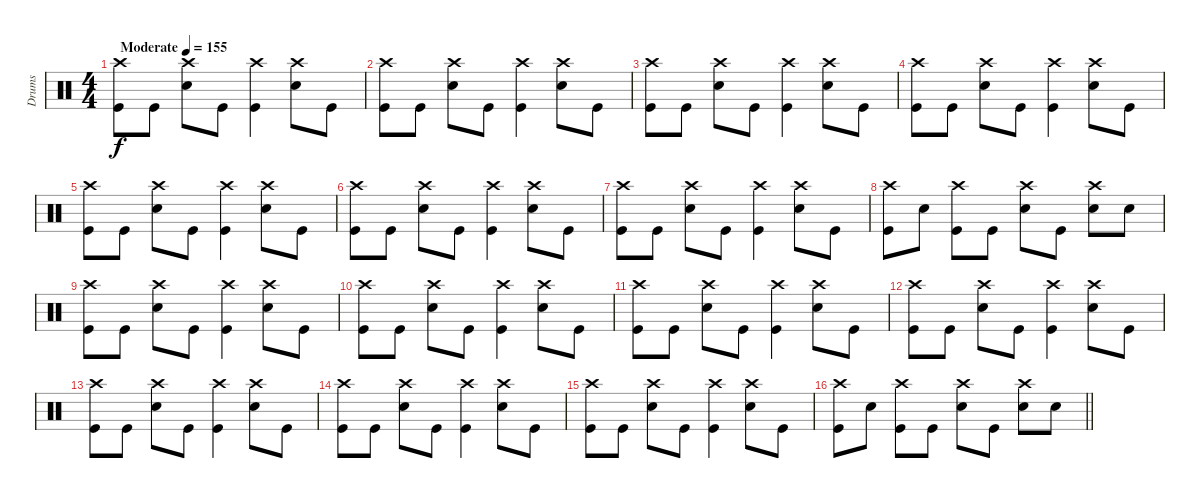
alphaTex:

\track ("Drums" "Drums") {instrument percussion}
\staff {score}
\articulation defaults
\ts (4 4)
\tempo (155 "Moderate")
\clef neutral
\ks c
("Crash high (hit)" "Kick (hit)").8{dy f} "Kick (hit)".8 ("Crash high (hit)" "Snare (hit) 2").8 "Kick (hit)".8 ("Crash high (hit)" "Kick (hit)").4 ("Crash high (hit)" "Snare (hit) 2").8 "Kick (hit)".8 |
("Crash high (hit)" "Kick (hit)").8 "Kick (hit)".8 ("Crash high (hit)" "Snare (hit) 2").8 "Kick (hit)".8 ("Crash high (hit)" "Kick (hit)").4 ("Crash high (hit)" "Snare (hit) 2").8 "Kick (hit)".8 |
("Crash high (hit)" "Kick (hit)").8 "Kick (hit)".8 ("Crash high (hit)" "Snare (hit) 2").8 "Kick (hit)".8 ("Crash high (hit)" "Kick (hit)").4 ("Crash high (hit)" "Snare (hit) 2").8 "Kick (hit)".8 |
("Crash high (hit)" "Kick (hit)").8 "Kick (hit)".8 ("Crash high (hit)" "Snare (hit) 2").8 "Kick (hit)".8 ("Crash high (hit)" "Kick (hit)").4 ("Crash high (hit)" "Snare (hit) 2").8 "Kick (hit)".8 |
("Crash high (hit)" "Kick (hit)").8 "Kick (hit)".8 ("Crash high (hit)" "Snare (hit) 2").8 "Kick (hit)".8 ("Crash high (hit)" "Kick (hit)").4 ("Crash high (hit)" "Snare (hit) 2").8 "Kick (hit)".8 |
("Crash high (hit)" "Kick (hit)").8 "Kick (hit)".8 ("Crash high (hit)" "Snare (hit) 2").8 "Kick (hit)".8 ("Crash high (hit)" "Kick (hit)").4 ("Crash high (hit)" "Snare (hit) 2").8 "Kick (hit)".8 |
("Crash high (hit)" "Kick (hit)").8 "Kick (hit)".8 ("Crash high (hit)" "Snare (hit) 2").8 "Kick (hit)".8 ("Crash high (hit)" "Kick (hit)").4 ("Crash high (hit)" "Snare (hit) 2").8 "Kick (hit)".8 |
("Crash high (hit)" "Kick (hit)").8 "Snare (hit) 2".8 ("Crash high (hit)" "Kick (hit)").8 "Kick (hit)".8 ("Crash high (hit)" "Snare (hit) 2").8 "Kick (hit)".8 ("Crash high (hit)" "Snare (hit) 2").8 "Snare (hit) 2".8 |
("Crash high (hit)" "Kick (hit)").8 "Kick (hit)".8 ("Crash high (hit)" "Snare (hit) 2").8 "Kick (hit)".8 ("Crash high (hit)" "Kick (hit)").4 ("Crash high (hit)" "Snare (hit) 2").8 "Kick (hit)".8 |
("Crash high (hit)" "Kick (hit)").8 "Kick (hit)".8 ("Crash high (hit)" "Snare (hit) 2").8 "Kick (hit)".8 ("Crash high (hit)" "Kick (hit)").4 ("Crash high (hit)" "Snare (hit) 2").8 "Kick (hit)".8 |
("Crash high (hit)" "Kick (hit)").8 "Kick (hit)".8 ("Crash high (hit)" "Snare (hit) 2").8 "Kick (hit)".8 ("Crash high (hit)" "Kick (hit)").4 ("Crash high (hit)" "Snare (hit) 2").8 "Kick (hit)".8 |
("Crash high (hit)" "Kick (hit)").8 "Kick (hit)".8 ("Crash high (hit)" "Snare (hit) 2").8 "Kick (hit)".8 ("Crash high (hit)" "Kick (hit)").4 ("Crash high (hit)" "Snare (hit) 2").8 "Kick (hit)".8 |
("Crash high (hit)" "Kick (hit)").8 "Kick (hit)".8 ("Crash high (hit)" "Snare (hit) 2").8 "Kick (hit)".8 ("Crash high (hit)" "Kick (hit)").4 ("Crash high (hit)" "Snare (hit) 2").8 "Kick (hit)".8 |
("Crash high (hit)" "Kick (hit)").8 "Kick (hit)".8 ("Crash high (hit)" "Snare (hit) 2").8 "Kick (hit)".8 ("Crash high (hit)" "Kick (hit)").4 ("Crash high (hit)" "Snare (hit) 2").8 "Kick (hit)".8 |
("Crash high (hit)" "Kick (hit)").8 "Kick (hit)".8 ("Crash high (hit)" "Snare (hit) 2").8 "Kick (hit)".8 ("Crash high (hit)" "Kick (hit)").4 ("Crash high (hit)" "Snare (hit) 2").8 "Kick (hit)".8 |
\barLineRight lightlight
("Crash high (hit)" "Kick (hit)").8 "Snare (hit) 2".8 ("Crash high (hit)" "Kick (hit)").8 "Kick (hit)".8 ("Crash high (hit)" "Snare (hit) 2").8 "Kick (hit)".8 ("Crash high (hit)" "Snare (hit) 2").8 "Snare (hit) 2".8
